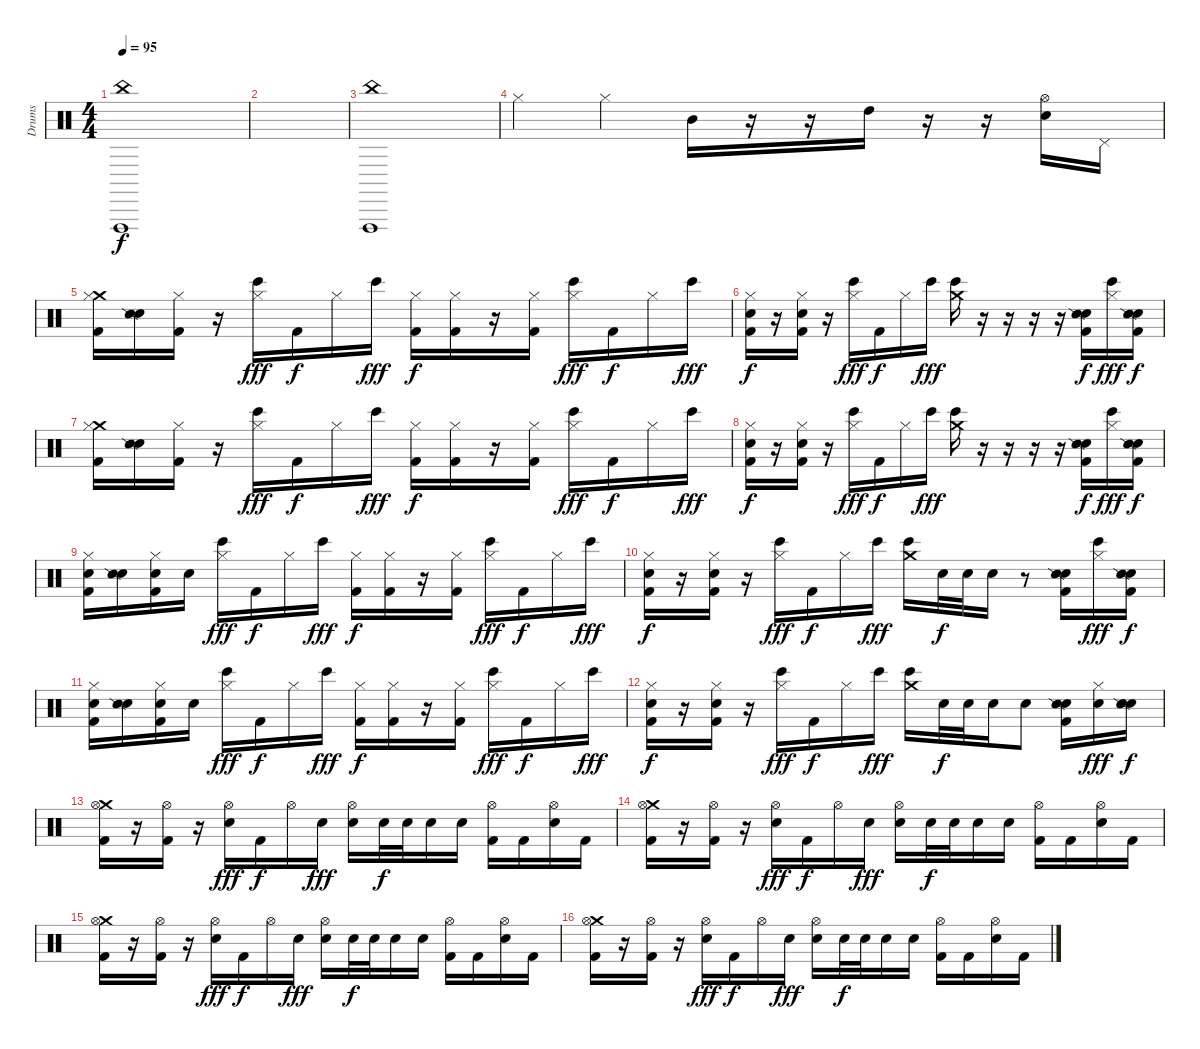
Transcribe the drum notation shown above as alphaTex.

\track ("Drums" "Drums") {instrument percussion}
\staff {score}
\articulation defaults
\ts (4 4)
\tempo 95
\clef neutral
\ks c
("China (hit)" "Vibraslap (hit)").1{dy f} |
|
("China (hit)" "Vibraslap (hit)").1 |
"Hi-Hat (closed)".4 "Hi-Hat (closed)".4 "Mid Tom (hit)".16 r.16 r.16 "High Tom (hit)".16 r.16 r.16 ("Hi-Hat (open)" "Electric Snare (hit)").16 "Pedal Hi-Hat (hit)".16 |
("Crash medium (hit)" "Hi-Hat (closed)" "Kick (hit) 2").16 ("Metronome (bell)" "Snare (side stick) 2").16 ("Hi-Hat (closed)" "Kick (hit) 2").16 r.16 ("Hi-Hat (closed)" "Bongo High (hit)").16{dy fff} "Kick (hit) 2".16{dy f} "Hi-Hat (closed)".16 "Bongo High (hit)".16{dy fff} ("Hi-Hat (closed)" "Kick (hit) 2").16{dy f} ("Hi-Hat (closed)" "Kick (hit) 2").16 r.16 ("Hi-Hat (closed)" "Kick (hit) 2").16 ("Hi-Hat (closed)" "Bongo High (hit)").16{dy fff} "Kick (hit) 2".16{dy f} "Hi-Hat (closed)".16 "Bongo High (hit)".16{dy fff} |
("Metronome (bell)" "Hi-Hat (closed)" "Kick (hit) 2").16{dy f} r.16 ("Metronome (bell)" "Hi-Hat (closed)" "Kick (hit) 2").16 r.16 ("Hi-Hat (closed)" "Bongo High (hit)").16{dy fff} "Kick (hit) 2".16{dy f} "Hi-Hat (closed)".16 "Bongo High (hit)".16{dy fff} ("Crash medium (hit)" "Bongo High (hit)").16 r.16 r.16 r.16 r.16 ("Metronome (bell)" "Snare (side stick) 2" "Kick (hit) 2").16{dy f} ("Hi-Hat (closed)" "Bongo High (hit)").16{dy fff} ("Metronome (bell)" "Snare (side stick) 2" "Kick (hit) 2").16{dy f} |
("Crash medium (hit)" "Hi-Hat (closed)" "Kick (hit) 2").16 ("Metronome (bell)" "Snare (side stick) 2").16 ("Hi-Hat (closed)" "Kick (hit) 2").16 r.16 ("Hi-Hat (closed)" "Bongo High (hit)").16{dy fff} "Kick (hit) 2".16{dy f} "Hi-Hat (closed)".16 "Bongo High (hit)".16{dy fff} ("Hi-Hat (closed)" "Kick (hit) 2").16{dy f} ("Hi-Hat (closed)" "Kick (hit) 2").16 r.16 ("Hi-Hat (closed)" "Kick (hit) 2").16 ("Hi-Hat (closed)" "Bongo High (hit)").16{dy fff} "Kick (hit) 2".16{dy f} "Hi-Hat (closed)".16 "Bongo High (hit)".16{dy fff} |
("Metronome (bell)" "Hi-Hat (closed)" "Kick (hit) 2").16{dy f} r.16 ("Metronome (bell)" "Hi-Hat (closed)" "Kick (hit) 2").16 r.16 ("Hi-Hat (closed)" "Bongo High (hit)").16{dy fff} "Kick (hit) 2".16{dy f} "Hi-Hat (closed)".16 "Bongo High (hit)".16{dy fff} ("Crash medium (hit)" "Bongo High (hit)").16 r.16 r.16 r.16 r.16 ("Metronome (bell)" "Snare (side stick) 2" "Kick (hit) 2").16{dy f} ("Hi-Hat (closed)" "Bongo High (hit)").16{dy fff} ("Metronome (bell)" "Snare (side stick) 2" "Kick (hit) 2").16{dy f} |
("Metronome (bell)" "Hi-Hat (closed)" "Kick (hit) 2").16 ("Metronome (bell)" "Snare (side stick) 2").16 ("Metronome (bell)" "Hi-Hat (closed)" "Kick (hit) 2").16 "Metronome (bell)".16 ("Hi-Hat (closed)" "Bongo High (hit)").16{dy fff} "Kick (hit) 2".16{dy f} "Hi-Hat (closed)".16 "Bongo High (hit)".16{dy fff} ("Hi-Hat (closed)" "Kick (hit) 2").16{dy f} ("Hi-Hat (closed)" "Kick (hit) 2").16 r.16 ("Hi-Hat (closed)" "Kick (hit) 2").16 ("Hi-Hat (closed)" "Bongo High (hit)").16{dy fff} "Kick (hit) 2".16{dy f} "Hi-Hat (closed)".16 "Bongo High (hit)".16{dy fff} |
("Metronome (bell)" "Hi-Hat (closed)" "Kick (hit) 2").16{dy f} r.16 ("Metronome (bell)" "Hi-Hat (closed)" "Kick (hit) 2").16 r.16 ("Hi-Hat (closed)" "Bongo High (hit)").16{dy fff} "Kick (hit) 2".16{dy f} "Hi-Hat (closed)".16 "Bongo High (hit)".16{dy fff} ("Crash medium (hit)" "Bongo High (hit)").16 "Metronome (bell)".32{dy f} "Metronome (bell)".32 "Metronome (bell)".16 r.8 ("Metronome (bell)" "Snare (side stick) 2" "Kick (hit) 2").16 ("Hi-Hat (closed)" "Bongo High (hit)").16{dy fff} ("Metronome (bell)" "Snare (side stick) 2" "Kick (hit) 2").16{dy f} |
("Metronome (bell)" "Hi-Hat (closed)" "Kick (hit) 2").16 ("Metronome (bell)" "Snare (side stick) 2").16 ("Metronome (bell)" "Hi-Hat (closed)" "Kick (hit) 2").16 "Metronome (bell)".16 ("Hi-Hat (closed)" "Bongo High (hit)").16{dy fff} "Kick (hit) 2".16{dy f} "Hi-Hat (closed)".16 "Bongo High (hit)".16{dy fff} ("Hi-Hat (closed)" "Kick (hit) 2").16{dy f} ("Hi-Hat (closed)" "Kick (hit) 2").16 r.16 ("Hi-Hat (closed)" "Kick (hit) 2").16 ("Hi-Hat (closed)" "Bongo High (hit)").16{dy fff} "Kick (hit) 2".16{dy f} "Hi-Hat (closed)".16 "Bongo High (hit)".16{dy fff} |
("Metronome (bell)" "Hi-Hat (closed)" "Kick (hit) 2").16{dy f} r.16 ("Metronome (bell)" "Hi-Hat (closed)" "Kick (hit) 2").16 r.16 ("Hi-Hat (closed)" "Bongo High (hit)").16{dy fff} "Kick (hit) 2".16{dy f} "Hi-Hat (closed)".16 "Bongo High (hit)".16{dy fff} ("Crash medium (hit)" "Bongo High (hit)").16 "Electric Snare (hit)".32{dy f} "Electric Snare (hit)".32 "Electric Snare (hit)".16 "Electric Snare (hit)".8 ("Metronome (bell)" "Snare (side stick) 2" "Kick (hit) 2").16 ("Hi-Hat (closed)" "Electric Snare (hit)").16{dy fff} ("Metronome (bell)" "Snare (side stick) 2" "Electric Snare (hit)").16{dy f} |
("Crash medium (hit)" "Hi-Hat (open)" "Kick (hit) 2").16 r.16 ("Hi-Hat (open)" "Kick (hit) 2").16 r.16 ("Hi-Hat (open)" "Electric Snare (hit)").16{dy fff} "Kick (hit) 2".16{dy f} "Hi-Hat (open)".16 "Electric Snare (hit)".16{dy fff} ("Hi-Hat (open)" "Electric Snare (hit)").16 "Electric Snare (hit)".32{dy f} "Electric Snare (hit)".32 "Electric Snare (hit)".16 "Electric Snare (hit)".16 ("Hi-Hat (open)" "Kick (hit) 2").16 "Kick (hit) 2".16 ("Hi-Hat (open)" "Electric Snare (hit)").16 "Kick (hit) 2".16 |
("Crash medium (hit)" "Hi-Hat (open)" "Kick (hit) 2").16 r.16 ("Hi-Hat (open)" "Kick (hit) 2").16 r.16 ("Hi-Hat (open)" "Electric Snare (hit)").16{dy fff} "Kick (hit) 2".16{dy f} "Hi-Hat (open)".16 "Electric Snare (hit)".16{dy fff} ("Hi-Hat (open)" "Electric Snare (hit)").16 "Electric Snare (hit)".32{dy f} "Electric Snare (hit)".32 "Electric Snare (hit)".16 "Electric Snare (hit)".16 ("Hi-Hat (open)" "Kick (hit) 2").16 "Kick (hit) 2".16 ("Hi-Hat (open)" "Electric Snare (hit)").16 "Kick (hit) 2".16 |
("Crash medium (hit)" "Hi-Hat (open)" "Kick (hit) 2").16 r.16 ("Hi-Hat (open)" "Kick (hit) 2").16 r.16 ("Hi-Hat (open)" "Electric Snare (hit)").16{dy fff} "Kick (hit) 2".16{dy f} "Hi-Hat (open)".16 "Electric Snare (hit)".16{dy fff} ("Hi-Hat (open)" "Electric Snare (hit)").16 "Electric Snare (hit)".32{dy f} "Electric Snare (hit)".32 "Electric Snare (hit)".16 "Electric Snare (hit)".16 ("Hi-Hat (open)" "Kick (hit) 2").16 "Kick (hit) 2".16 ("Hi-Hat (open)" "Electric Snare (hit)").16 "Kick (hit) 2".16 |
("Crash medium (hit)" "Hi-Hat (open)" "Kick (hit) 2").16 r.16 ("Hi-Hat (open)" "Kick (hit) 2").16 r.16 ("Hi-Hat (open)" "Electric Snare (hit)").16{dy fff} "Kick (hit) 2".16{dy f} "Hi-Hat (open)".16 "Electric Snare (hit)".16{dy fff} ("Hi-Hat (open)" "Electric Snare (hit)").16 "Electric Snare (hit)".32{dy f} "Electric Snare (hit)".32 "Electric Snare (hit)".16 "Electric Snare (hit)".16 ("Hi-Hat (open)" "Kick (hit) 2").16 "Kick (hit) 2".16 ("Hi-Hat (open)" "Electric Snare (hit)").16 "Kick (hit) 2".16
